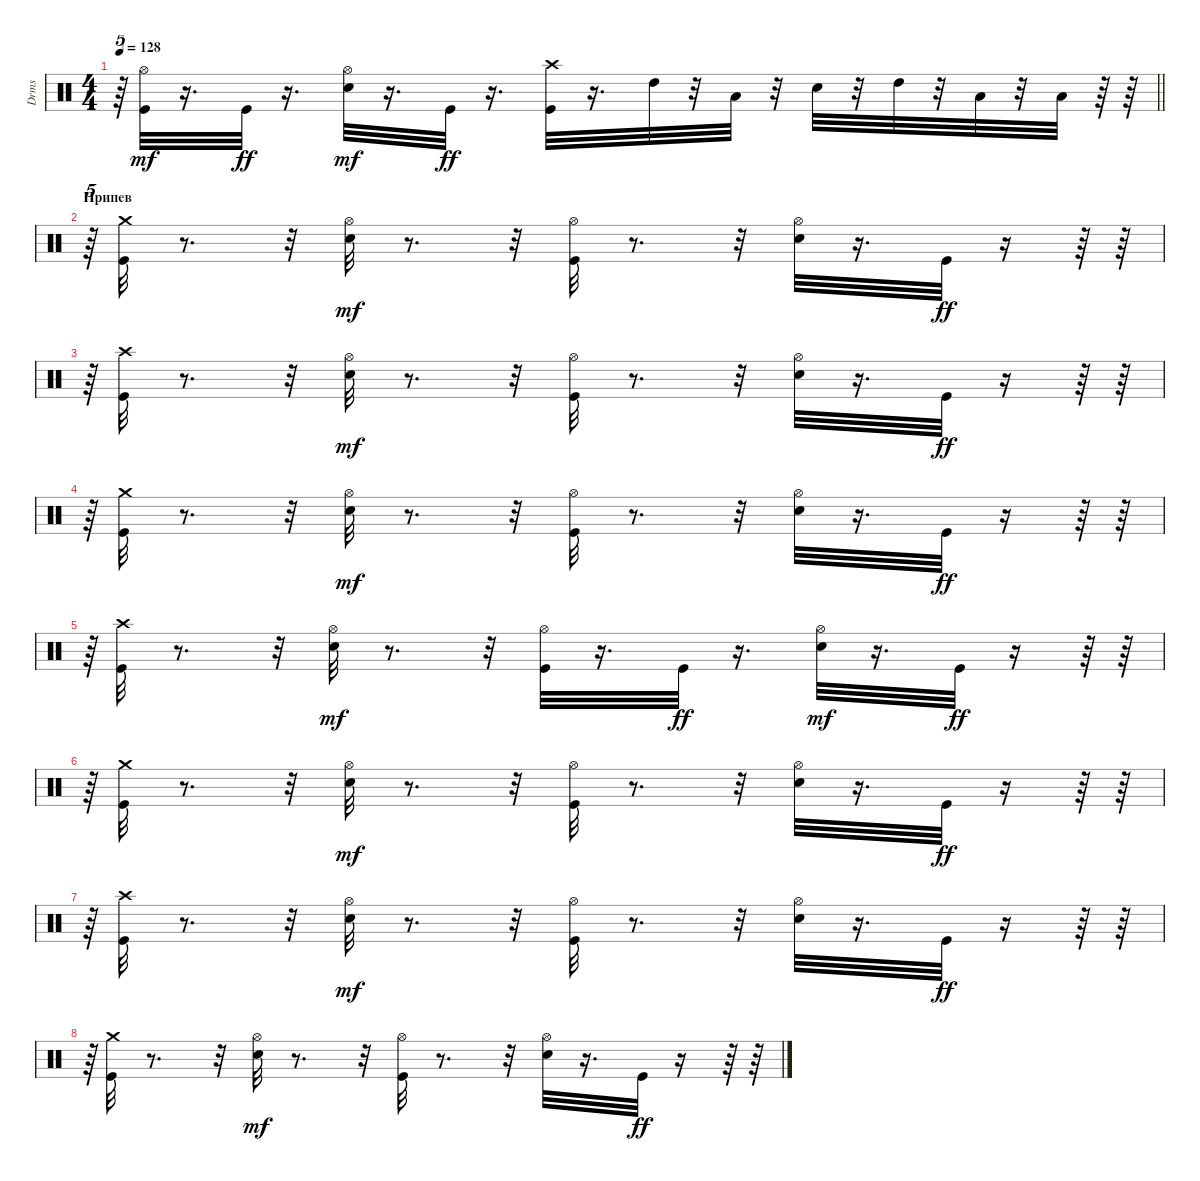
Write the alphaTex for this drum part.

\track ("Drms" "Drms") {instrument percussion}
\staff {score}
\articulation defaults
\ts (4 4)
\tempo 128
\clef neutral
\barLineRight lightlight
\ks c
r.64{tu (5 4) dy mf} ("Kick (hit)" "Hi-Hat (open)").32 r.16{d} "Kick (hit)".32{dy ff} r.16{d} ("Snare (hit) 2" "Hi-Hat (open)").32{dy mf} r.16{d} "Kick (hit)".32{dy ff} r.16{d} ("Kick (hit)" "Crash high (hit)").32 r.16{d} "High Tom (hit)".32 r.32 "Low Tom (hit)".32 r.32 "Snare (hit) 2".32 r.32 "High Tom (hit)".32 r.32 "Low Tom (hit)".32 r.32 "Low Floor Tom (hit)".32 r.64 r.64 |
\section ("" "Припев")
r.64{tu (5 4)} ("Kick (hit)" "Crash medium (hit)").32 r.8{d} r.32 ("Snare (hit) 2" "Hi-Hat (open)").32{dy mf} r.8{d} r.32 ("Kick (hit)" "Hi-Hat (open)").32 r.8{d} r.32 ("Snare (hit) 2" "Hi-Hat (open)").32 r.16{d} "Kick (hit)".32{dy ff} r.16 r.64 r.64 |
r.64{tu (5 4)} ("Kick (hit)" "Crash high (hit)").32 r.8{d} r.32 ("Snare (hit) 2" "Hi-Hat (open)").32{dy mf} r.8{d} r.32 ("Kick (hit)" "Hi-Hat (open)").32 r.8{d} r.32 ("Snare (hit) 2" "Hi-Hat (open)").32 r.16{d} "Kick (hit)".32{dy ff} r.16 r.64 r.64 |
r.64{tu (5 4)} ("Kick (hit)" "Crash medium (hit)").32 r.8{d} r.32 ("Snare (hit) 2" "Hi-Hat (open)").32{dy mf} r.8{d} r.32 ("Kick (hit)" "Hi-Hat (open)").32 r.8{d} r.32 ("Snare (hit) 2" "Hi-Hat (open)").32 r.16{d} "Kick (hit)".32{dy ff} r.16 r.64 r.64 |
r.64{tu (5 4)} ("Kick (hit)" "Crash high (hit)").32 r.8{d} r.32 ("Snare (hit) 2" "Hi-Hat (open)").32{dy mf} r.8{d} r.32 ("Kick (hit)" "Hi-Hat (open)").32 r.16{d} "Kick (hit)".32{dy ff} r.16{d} ("Snare (hit) 2" "Hi-Hat (open)").32{dy mf} r.16{d} "Kick (hit)".32{dy ff} r.16 r.64 r.64 |
r.64{tu (5 4)} ("Kick (hit)" "Crash medium (hit)").32 r.8{d} r.32 ("Snare (hit) 2" "Hi-Hat (open)").32{dy mf} r.8{d} r.32 ("Kick (hit)" "Hi-Hat (open)").32 r.8{d} r.32 ("Snare (hit) 2" "Hi-Hat (open)").32 r.16{d} "Kick (hit)".32{dy ff} r.16 r.64 r.64 |
r.64{tu (5 4)} ("Kick (hit)" "Crash high (hit)").32 r.8{d} r.32 ("Snare (hit) 2" "Hi-Hat (open)").32{dy mf} r.8{d} r.32 ("Kick (hit)" "Hi-Hat (open)").32 r.8{d} r.32 ("Snare (hit) 2" "Hi-Hat (open)").32 r.16{d} "Kick (hit)".32{dy ff} r.16 r.64 r.64 |
r.64{tu (5 4)} ("Kick (hit)" "Crash medium (hit)").32 r.8{d} r.32 ("Snare (hit) 2" "Hi-Hat (open)").32{dy mf} r.8{d} r.32 ("Kick (hit)" "Hi-Hat (open)").32 r.8{d} r.32 ("Snare (hit) 2" "Hi-Hat (open)").32 r.16{d} "Kick (hit)".32{dy ff} r.16 r.64 r.64
